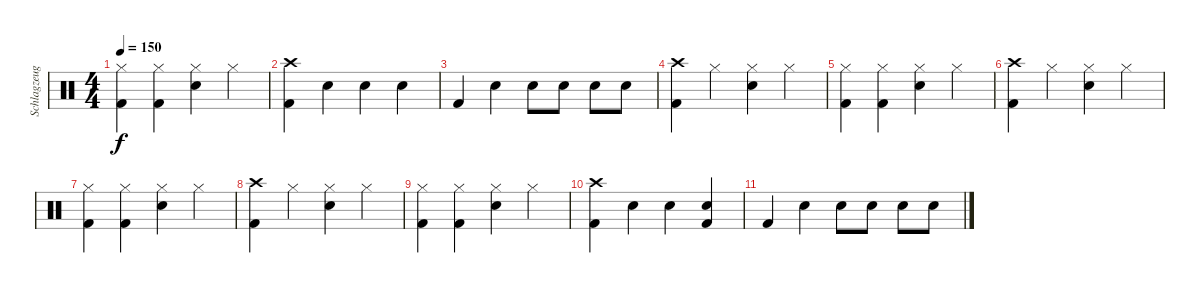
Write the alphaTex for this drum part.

\track ("Schlagzeug" "Schlagzeug") {instrument percussion}
\staff {score}
\articulation defaults
\ts (4 4)
\tempo 150
\clef neutral
\ks c
("Hi-Hat (closed)" "Kick (hit) 2").4{dy f} ("Hi-Hat (closed)" "Kick (hit) 2").4 ("Hi-Hat (closed)" "Snare (hit) 2").4 "Hi-Hat (closed)".4 |
("Crash high (hit)" "Kick (hit) 2").4 "Snare (hit) 2".4 "Snare (hit) 2".4 "Snare (hit) 2".4 |
"Kick (hit) 2".4 "Snare (hit) 2".4 "Snare (hit) 2".8 "Snare (hit) 2".8 "Snare (hit) 2".8 "Snare (hit) 2".8 |
("Crash high (hit)" "Kick (hit) 2").4 "Hi-Hat (closed)".4 ("Hi-Hat (closed)" "Snare (hit) 2").4 "Hi-Hat (closed)".4 |
("Hi-Hat (closed)" "Kick (hit) 2").4 ("Hi-Hat (closed)" "Kick (hit) 2").4 ("Hi-Hat (closed)" "Snare (hit) 2").4 "Hi-Hat (closed)".4 |
("Crash high (hit)" "Kick (hit) 2").4 "Hi-Hat (closed)".4 ("Hi-Hat (closed)" "Snare (hit) 2").4 "Hi-Hat (closed)".4 |
("Hi-Hat (closed)" "Kick (hit) 2").4 ("Hi-Hat (closed)" "Kick (hit) 2").4 ("Hi-Hat (closed)" "Snare (hit) 2").4 "Hi-Hat (closed)".4 |
("Crash high (hit)" "Kick (hit) 2").4 "Hi-Hat (closed)".4 ("Hi-Hat (closed)" "Snare (hit) 2").4 "Hi-Hat (closed)".4 |
("Hi-Hat (closed)" "Kick (hit) 2").4 ("Hi-Hat (closed)" "Kick (hit) 2").4 ("Hi-Hat (closed)" "Snare (hit) 2").4 "Hi-Hat (closed)".4 |
("Crash high (hit)" "Kick (hit) 2").4 "Snare (hit) 2".4 "Snare (hit) 2".4 ("Snare (hit) 2" "Kick (hit) 2").4 |
"Kick (hit) 2".4 "Snare (hit) 2".4 "Snare (hit) 2".8 "Snare (hit) 2".8 "Snare (hit) 2".8 "Snare (hit) 2".8
